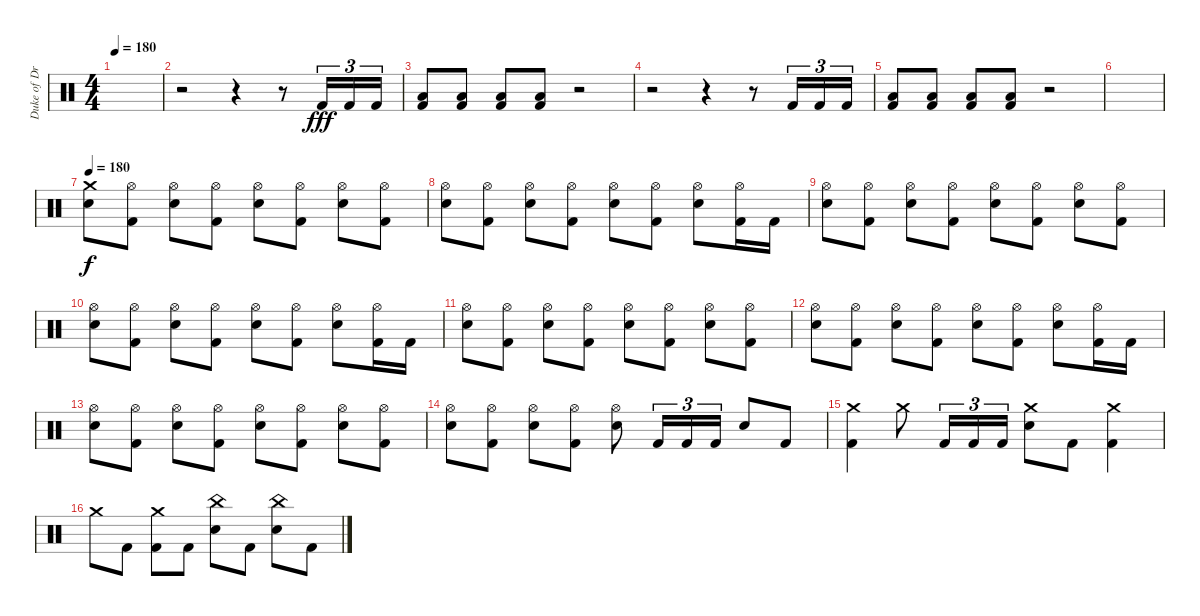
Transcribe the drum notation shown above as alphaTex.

\track ("Duke of Drumington" "Duke of Dr") {instrument percussion}
\staff {score}
\articulation defaults
\ts (4 4)
\tempo 180
\clef neutral
\ks c
|
r.2 r.4 r.8 "Kick (hit) 2".16{tu (3 2) dy fff} "Kick (hit) 2".16{tu (3 2)} "Kick (hit) 2".16{tu (3 2)} |
("Low Floor Tom (hit)" "Kick (hit) 2").8 ("Low Floor Tom (hit)" "Kick (hit) 2").8 ("Low Floor Tom (hit)" "Kick (hit) 2").8 ("Low Floor Tom (hit)" "Kick (hit) 2").8 r.2 |
r.2 r.4 r.8 "Kick (hit) 2".16{tu (3 2)} "Kick (hit) 2".16{tu (3 2)} "Kick (hit) 2".16{tu (3 2)} |
("Low Floor Tom (hit)" "Kick (hit) 2").8 ("Low Floor Tom (hit)" "Kick (hit) 2").8 ("Low Floor Tom (hit)" "Kick (hit) 2").8 ("Low Floor Tom (hit)" "Kick (hit) 2").8 r.2 |
|
\tempo 180
("Crash medium (hit)" "Electric Snare (hit)").8{dy f} ("Hi-Hat (open)" "Kick (hit) 2").8 ("Hi-Hat (open)" "Electric Snare (hit)").8 ("Hi-Hat (open)" "Kick (hit) 2").8 ("Hi-Hat (open)" "Electric Snare (hit)").8 ("Hi-Hat (open)" "Kick (hit) 2").8 ("Hi-Hat (open)" "Electric Snare (hit)").8 ("Hi-Hat (open)" "Kick (hit) 2").8 |
("Hi-Hat (open)" "Electric Snare (hit)").8 ("Hi-Hat (open)" "Kick (hit) 2").8 ("Hi-Hat (open)" "Electric Snare (hit)").8 ("Hi-Hat (open)" "Kick (hit) 2").8 ("Hi-Hat (open)" "Electric Snare (hit)").8 ("Hi-Hat (open)" "Kick (hit) 2").8 ("Hi-Hat (open)" "Electric Snare (hit)").8 ("Hi-Hat (open)" "Kick (hit) 2").16 "Kick (hit) 2".16 |
("Hi-Hat (open)" "Electric Snare (hit)").8 ("Hi-Hat (open)" "Kick (hit) 2").8 ("Hi-Hat (open)" "Electric Snare (hit)").8 ("Hi-Hat (open)" "Kick (hit) 2").8 ("Hi-Hat (open)" "Electric Snare (hit)").8 ("Hi-Hat (open)" "Kick (hit) 2").8 ("Hi-Hat (open)" "Electric Snare (hit)").8 ("Hi-Hat (open)" "Kick (hit) 2").8 |
("Hi-Hat (open)" "Electric Snare (hit)").8 ("Hi-Hat (open)" "Kick (hit) 2").8 ("Hi-Hat (open)" "Electric Snare (hit)").8 ("Hi-Hat (open)" "Kick (hit) 2").8 ("Hi-Hat (open)" "Electric Snare (hit)").8 ("Hi-Hat (open)" "Kick (hit) 2").8 ("Hi-Hat (open)" "Electric Snare (hit)").8 ("Hi-Hat (open)" "Kick (hit) 2").16 "Kick (hit) 2".16 |
("Hi-Hat (open)" "Electric Snare (hit)").8 ("Hi-Hat (open)" "Kick (hit) 2").8 ("Hi-Hat (open)" "Electric Snare (hit)").8 ("Hi-Hat (open)" "Kick (hit) 2").8 ("Hi-Hat (open)" "Electric Snare (hit)").8 ("Hi-Hat (open)" "Kick (hit) 2").8 ("Hi-Hat (open)" "Electric Snare (hit)").8 ("Hi-Hat (open)" "Kick (hit) 2").8 |
("Hi-Hat (open)" "Electric Snare (hit)").8 ("Hi-Hat (open)" "Kick (hit) 2").8 ("Hi-Hat (open)" "Electric Snare (hit)").8 ("Hi-Hat (open)" "Kick (hit) 2").8 ("Hi-Hat (open)" "Electric Snare (hit)").8 ("Hi-Hat (open)" "Kick (hit) 2").8 ("Hi-Hat (open)" "Electric Snare (hit)").8 ("Hi-Hat (open)" "Kick (hit) 2").16 "Kick (hit) 2".16 |
("Hi-Hat (open)" "Electric Snare (hit)").8 ("Hi-Hat (open)" "Kick (hit) 2").8 ("Hi-Hat (open)" "Electric Snare (hit)").8 ("Hi-Hat (open)" "Kick (hit) 2").8 ("Hi-Hat (open)" "Electric Snare (hit)").8 ("Hi-Hat (open)" "Kick (hit) 2").8 ("Hi-Hat (open)" "Electric Snare (hit)").8 ("Hi-Hat (open)" "Kick (hit) 2").8 |
("Hi-Hat (open)" "Electric Snare (hit)").8 ("Hi-Hat (open)" "Kick (hit) 2").8 ("Hi-Hat (open)" "Electric Snare (hit)").8 ("Hi-Hat (open)" "Kick (hit) 2").8 ("Hi-Hat (open)" "Electric Snare (hit)").8 "Kick (hit) 2".16{tu (3 2)} "Kick (hit) 2".16{tu (3 2)} "Kick (hit) 2".16{tu (3 2)} "Electric Snare (hit)".8 "Kick (hit) 2".8 |
("Crash medium (hit)" "Kick (hit) 2").4 "Crash medium (hit)".8 "Kick (hit) 2".16{tu (3 2)} "Kick (hit) 2".16{tu (3 2)} "Kick (hit) 2".16{tu (3 2)} ("Crash medium (hit)" "Electric Snare (hit)").8 "Kick (hit) 2".8 ("Crash medium (hit)" "Kick (hit) 2").4 |
"Crash medium (hit)".8 "Kick (hit) 2".8 ("Crash medium (hit)" "Kick (hit) 2").8 "Kick (hit) 2".8 ("China (hit)" "Electric Snare (hit)").8 "Kick (hit) 2".8 ("China (hit)" "Electric Snare (hit)").8 "Kick (hit) 2".8
